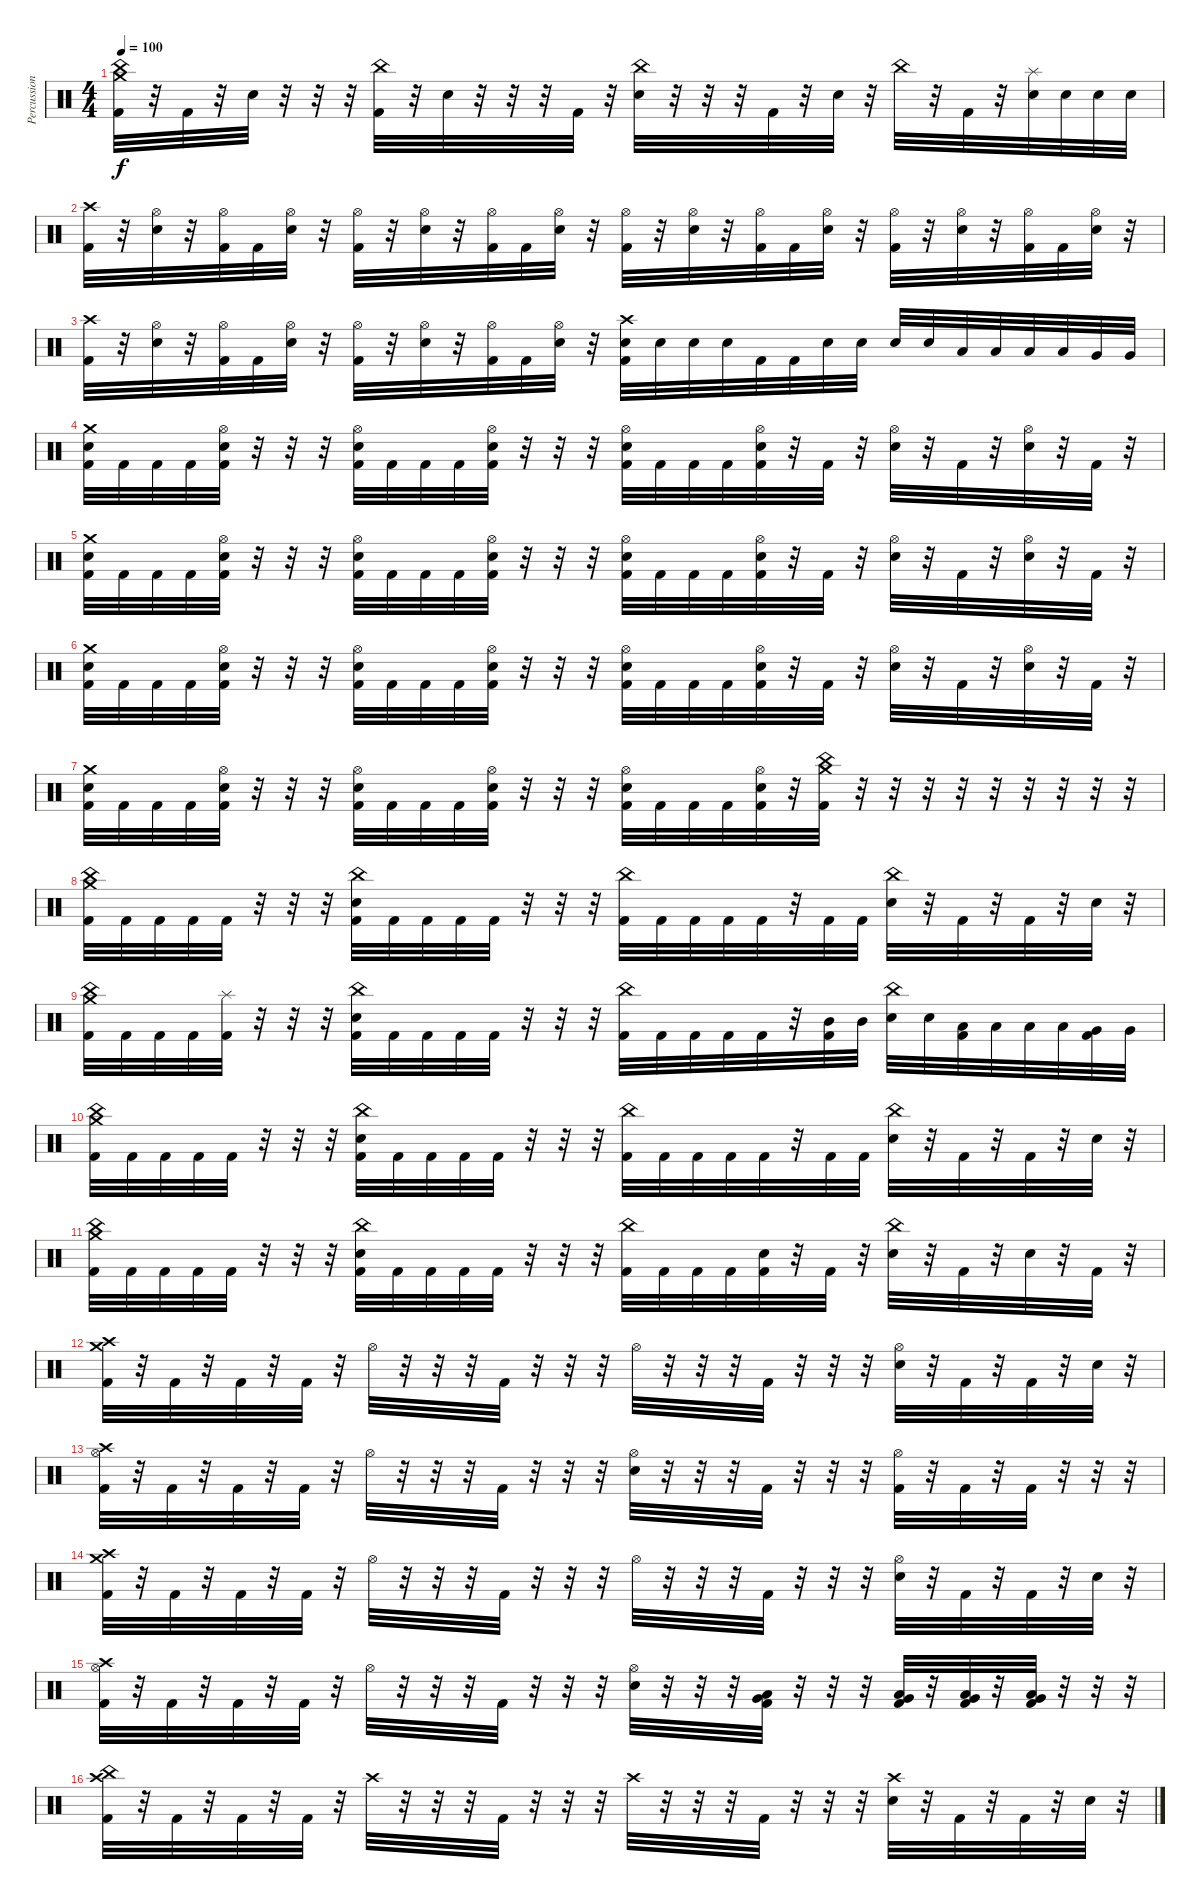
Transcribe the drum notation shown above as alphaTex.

\track ("Percussion" "Percussion") {instrument percussion}
\staff {score}
\articulation defaults
\ts (4 4)
\tempo 100
\clef neutral
\ks c
("Crash medium (hit)" "China (hit)" "Kick (hit) 2").32{dy f} r.32 "Kick (hit) 2".32 r.32 "Electric Snare (hit)".32 r.32 r.32 r.32 ("China (hit)" "Kick (hit) 2").32 r.32 "Electric Snare (hit)".32 r.32 r.32 r.32 "Kick (hit) 2".32 r.32 ("China (hit)" "Electric Snare (hit)").32 r.32 r.32 r.32 "Kick (hit) 2".32 r.32 "Electric Snare (hit)".32 r.32 "China (hit)".32 r.32 "Kick (hit) 2".32 r.32 ("Splash (hit)" "Electric Snare (hit)").32 "Electric Snare (hit)".32 "Electric Snare (hit)".32 "Electric Snare (hit)".32 |
("Crash high (hit)" "Kick (hit) 2").32 r.32 ("Hi-Hat (open)" "Electric Snare (hit)").32 r.32 ("Hi-Hat (open)" "Kick (hit) 2").32 "Kick (hit) 2".32 ("Hi-Hat (open)" "Electric Snare (hit)").32 r.32 ("Hi-Hat (open)" "Kick (hit) 2").32 r.32 ("Hi-Hat (open)" "Electric Snare (hit)").32 r.32 ("Hi-Hat (open)" "Kick (hit) 2").32 "Kick (hit) 2".32 ("Hi-Hat (open)" "Electric Snare (hit)").32 r.32 ("Hi-Hat (open)" "Kick (hit) 2").32 r.32 ("Hi-Hat (open)" "Electric Snare (hit)").32 r.32 ("Hi-Hat (open)" "Kick (hit) 2").32 "Kick (hit) 2".32 ("Hi-Hat (open)" "Electric Snare (hit)").32 r.32 ("Hi-Hat (open)" "Kick (hit) 2").32 r.32 ("Hi-Hat (open)" "Electric Snare (hit)").32 r.32 ("Hi-Hat (open)" "Kick (hit) 2").32 "Kick (hit) 2".32 ("Hi-Hat (open)" "Electric Snare (hit)").32 r.32 |
("Crash high (hit)" "Kick (hit) 2").32 r.32 ("Hi-Hat (open)" "Electric Snare (hit)").32 r.32 ("Hi-Hat (open)" "Kick (hit) 2").32 "Kick (hit) 2".32 ("Hi-Hat (open)" "Electric Snare (hit)").32 r.32 ("Hi-Hat (open)" "Kick (hit) 2").32 r.32 ("Hi-Hat (open)" "Electric Snare (hit)").32 r.32 ("Hi-Hat (open)" "Kick (hit) 2").32 "Kick (hit) 2".32 ("Hi-Hat (open)" "Electric Snare (hit)").32 r.32 ("Crash high (hit)" "Electric Snare (hit)" "Kick (hit) 2").32 "Electric Snare (hit)".32 "Electric Snare (hit)".32 "Electric Snare (hit)".32 "Kick (hit) 2".32 "Kick (hit) 2".32 "Electric Snare (hit)".32 "Electric Snare (hit)".32 "Electric Snare (hit)".32 "Electric Snare (hit)".32 "Low Tom (hit)".32 "Low Tom (hit)".32 "Low Tom (hit)".32 "Low Tom (hit)".32 "Very Low Tom (hit)".32 "Very Low Tom (hit)".32 |
("Crash medium (hit)" "Electric Snare (hit)" "Kick (hit) 2").32 "Kick (hit) 2".32 "Kick (hit) 2".32 "Kick (hit) 2".32 ("Hi-Hat (open)" "Electric Snare (hit)" "Kick (hit) 2").32 r.32 r.32 r.32 ("Hi-Hat (open)" "Electric Snare (hit)" "Kick (hit) 2").32 "Kick (hit) 2".32 "Kick (hit) 2".32 "Kick (hit) 2".32 ("Hi-Hat (open)" "Electric Snare (hit)" "Kick (hit) 2").32 r.32 r.32 r.32 ("Hi-Hat (open)" "Electric Snare (hit)" "Kick (hit) 2").32 "Kick (hit) 2".32 "Kick (hit) 2".32 "Kick (hit) 2".32 ("Hi-Hat (open)" "Electric Snare (hit)" "Kick (hit) 2").32 r.32 "Kick (hit) 2".32 r.32 ("Hi-Hat (open)" "Electric Snare (hit)").32 r.32 "Kick (hit) 2".32 r.32 ("Hi-Hat (open)" "Electric Snare (hit)").32 r.32 "Kick (hit) 2".32 r.32 |
("Crash medium (hit)" "Electric Snare (hit)" "Kick (hit) 2").32 "Kick (hit) 2".32 "Kick (hit) 2".32 "Kick (hit) 2".32 ("Hi-Hat (open)" "Electric Snare (hit)" "Kick (hit) 2").32 r.32 r.32 r.32 ("Hi-Hat (open)" "Electric Snare (hit)" "Kick (hit) 2").32 "Kick (hit) 2".32 "Kick (hit) 2".32 "Kick (hit) 2".32 ("Hi-Hat (open)" "Electric Snare (hit)" "Kick (hit) 2").32 r.32 r.32 r.32 ("Hi-Hat (open)" "Electric Snare (hit)" "Kick (hit) 2").32 "Kick (hit) 2".32 "Kick (hit) 2".32 "Kick (hit) 2".32 ("Hi-Hat (open)" "Electric Snare (hit)" "Kick (hit) 2").32 r.32 "Kick (hit) 2".32 r.32 ("Hi-Hat (open)" "Electric Snare (hit)").32 r.32 "Kick (hit) 2".32 r.32 ("Hi-Hat (open)" "Electric Snare (hit)").32 r.32 "Kick (hit) 2".32 r.32 |
("Crash medium (hit)" "Electric Snare (hit)" "Kick (hit) 2").32 "Kick (hit) 2".32 "Kick (hit) 2".32 "Kick (hit) 2".32 ("Hi-Hat (open)" "Electric Snare (hit)" "Kick (hit) 2").32 r.32 r.32 r.32 ("Hi-Hat (open)" "Electric Snare (hit)" "Kick (hit) 2").32 "Kick (hit) 2".32 "Kick (hit) 2".32 "Kick (hit) 2".32 ("Hi-Hat (open)" "Electric Snare (hit)" "Kick (hit) 2").32 r.32 r.32 r.32 ("Hi-Hat (open)" "Electric Snare (hit)" "Kick (hit) 2").32 "Kick (hit) 2".32 "Kick (hit) 2".32 "Kick (hit) 2".32 ("Hi-Hat (open)" "Electric Snare (hit)" "Kick (hit) 2").32 r.32 "Kick (hit) 2".32 r.32 ("Hi-Hat (open)" "Electric Snare (hit)").32 r.32 "Kick (hit) 2".32 r.32 ("Hi-Hat (open)" "Electric Snare (hit)").32 r.32 "Kick (hit) 2".32 r.32 |
("Crash medium (hit)" "Electric Snare (hit)" "Kick (hit) 2").32 "Kick (hit) 2".32 "Kick (hit) 2".32 "Kick (hit) 2".32 ("Hi-Hat (open)" "Electric Snare (hit)" "Kick (hit) 2").32 r.32 r.32 r.32 ("Hi-Hat (open)" "Electric Snare (hit)" "Kick (hit) 2").32 "Kick (hit) 2".32 "Kick (hit) 2".32 "Kick (hit) 2".32 ("Hi-Hat (open)" "Electric Snare (hit)" "Kick (hit) 2").32 r.32 r.32 r.32 ("Hi-Hat (open)" "Electric Snare (hit)" "Kick (hit) 2").32 "Kick (hit) 2".32 "Kick (hit) 2".32 "Kick (hit) 2".32 ("Hi-Hat (open)" "Electric Snare (hit)" "Kick (hit) 2").32 r.32 ("Crash medium (hit)" "China (hit)" "Kick (hit) 2").32 r.32 r.32 r.32 r.32 r.32 r.32 r.32 r.32 r.32 |
("China (hit)" "Crash medium (hit)" "Kick (hit) 2").32 "Kick (hit) 2".32 "Kick (hit) 2".32 "Kick (hit) 2".32 "Kick (hit) 2".32 r.32 r.32 r.32 ("China (hit)" "Electric Snare (hit)" "Kick (hit) 2").32 "Kick (hit) 2".32 "Kick (hit) 2".32 "Kick (hit) 2".32 "Kick (hit) 2".32 r.32 r.32 r.32 ("China (hit)" "Kick (hit) 2").32 "Kick (hit) 2".32 "Kick (hit) 2".32 "Kick (hit) 2".32 "Kick (hit) 2".32 r.32 "Kick (hit) 2".32 "Kick (hit) 2".32 ("China (hit)" "Electric Snare (hit)").32 r.32 "Kick (hit) 2".32 r.32 "Kick (hit) 2".32 r.32 "Electric Snare (hit)".32 r.32 |
("China (hit)" "Crash medium (hit)" "Kick (hit) 2").32 "Kick (hit) 2".32 "Kick (hit) 2".32 "Kick (hit) 2".32 ("Splash (hit)" "Kick (hit) 2").32 r.32 r.32 r.32 ("China (hit)" "Electric Snare (hit)" "Kick (hit) 2").32 "Kick (hit) 2".32 "Kick (hit) 2".32 "Kick (hit) 2".32 "Kick (hit) 2".32 r.32 r.32 r.32 ("China (hit)" "Kick (hit) 2").32 "Kick (hit) 2".32 "Kick (hit) 2".32 "Kick (hit) 2".32 "Kick (hit) 2".32 r.32 ("Mid Tom (hit)" "Kick (hit) 2").32 "Mid Tom (hit)".32 ("China (hit)" "Electric Snare (hit)").32 "Electric Snare (hit)".32 ("Low Tom (hit)" "Kick (hit) 2").32 "Low Tom (hit)".32 "Low Tom (hit)".32 "Low Tom (hit)".32 ("Very Low Tom (hit)" "Kick (hit) 2").32 "Very Low Tom (hit)".32 |
("China (hit)" "Crash medium (hit)" "Kick (hit) 2").32 "Kick (hit) 2".32 "Kick (hit) 2".32 "Kick (hit) 2".32 "Kick (hit) 2".32 r.32 r.32 r.32 ("China (hit)" "Electric Snare (hit)" "Kick (hit) 2").32 "Kick (hit) 2".32 "Kick (hit) 2".32 "Kick (hit) 2".32 "Kick (hit) 2".32 r.32 r.32 r.32 ("China (hit)" "Kick (hit) 2").32 "Kick (hit) 2".32 "Kick (hit) 2".32 "Kick (hit) 2".32 "Kick (hit) 2".32 r.32 "Kick (hit) 2".32 "Kick (hit) 2".32 ("China (hit)" "Electric Snare (hit)").32 r.32 "Kick (hit) 2".32 r.32 "Kick (hit) 2".32 r.32 "Electric Snare (hit)".32 r.32 |
("China (hit)" "Crash medium (hit)" "Kick (hit) 2").32 "Kick (hit) 2".32 "Kick (hit) 2".32 "Kick (hit) 2".32 "Kick (hit) 2".32 r.32 r.32 r.32 ("China (hit)" "Electric Snare (hit)" "Kick (hit) 2").32 "Kick (hit) 2".32 "Kick (hit) 2".32 "Kick (hit) 2".32 "Kick (hit) 2".32 r.32 r.32 r.32 ("China (hit)" "Kick (hit) 2").32 "Kick (hit) 2".32 "Kick (hit) 2".32 "Kick (hit) 2".32 ("Electric Snare (hit)" "Kick (hit) 2").32 r.32 "Kick (hit) 2".32 r.32 ("China (hit)" "Electric Snare (hit)").32 r.32 "Kick (hit) 2".32 r.32 "Electric Snare (hit)".32 r.32 "Kick (hit) 2".32 r.32 |
("Crash high (hit)" "Crash medium (hit)" "Kick (hit) 2").32 r.32 "Kick (hit) 2".32 r.32 "Kick (hit) 2".32 r.32 "Kick (hit) 2".32 r.32 "Hi-Hat (open)".32 r.32 r.32 r.32 "Kick (hit) 2".32 r.32 r.32 r.32 "Hi-Hat (open)".32 r.32 r.32 r.32 "Kick (hit) 2".32 r.32 r.32 r.32 ("Hi-Hat (open)" "Electric Snare (hit)").32 r.32 "Kick (hit) 2".32 r.32 "Kick (hit) 2".32 r.32 "Electric Snare (hit)".32 r.32 |
("Crash high (hit)" "Hi-Hat (open)" "Kick (hit) 2").32 r.32 "Kick (hit) 2".32 r.32 "Kick (hit) 2".32 r.32 "Kick (hit) 2".32 r.32 "Hi-Hat (open)".32 r.32 r.32 r.32 "Kick (hit) 2".32 r.32 r.32 r.32 ("Hi-Hat (open)" "Electric Snare (hit)").32 r.32 r.32 r.32 "Kick (hit) 2".32 r.32 r.32 r.32 ("Hi-Hat (open)" "Kick (hit) 2").32 r.32 "Kick (hit) 2".32 r.32 "Kick (hit) 2".32 r.32 r.32 r.32 |
("Crash high (hit)" "Crash medium (hit)" "Kick (hit) 2").32 r.32 "Kick (hit) 2".32 r.32 "Kick (hit) 2".32 r.32 "Kick (hit) 2".32 r.32 "Hi-Hat (open)".32 r.32 r.32 r.32 "Kick (hit) 2".32 r.32 r.32 r.32 "Hi-Hat (open)".32 r.32 r.32 r.32 "Kick (hit) 2".32 r.32 r.32 r.32 ("Hi-Hat (open)" "Electric Snare (hit)").32 r.32 "Kick (hit) 2".32 r.32 "Kick (hit) 2".32 r.32 "Electric Snare (hit)".32 r.32 |
("Crash high (hit)" "Hi-Hat (open)" "Kick (hit) 2").32 r.32 "Kick (hit) 2".32 r.32 "Kick (hit) 2".32 r.32 "Kick (hit) 2".32 r.32 "Hi-Hat (open)".32 r.32 r.32 r.32 "Kick (hit) 2".32 r.32 r.32 r.32 ("Hi-Hat (open)" "Electric Snare (hit)").32 r.32 r.32 r.32 ("Low Floor Tom (hit)" "Very Low Tom (hit)" "Kick (hit) 2").32 r.32 r.32 r.32 ("Low Floor Tom (hit)" "Very Low Tom (hit)" "Kick (hit) 2").32 r.32 ("Low Floor Tom (hit)" "Very Low Tom (hit)" "Kick (hit) 2").32 r.32 ("Low Floor Tom (hit)" "Very Low Tom (hit)" "Kick (hit) 2").32 r.32 r.32 r.32 |
("China (hit)" "Crash high (hit)" "Kick (hit) 2").32 r.32 "Kick (hit) 2".32 r.32 "Kick (hit) 2".32 r.32 "Kick (hit) 2".32 r.32 "Crash high (hit)".32 r.32 r.32 r.32 "Kick (hit) 2".32 r.32 r.32 r.32 "Crash high (hit)".32 r.32 r.32 r.32 "Kick (hit) 2".32 r.32 r.32 r.32 ("Crash high (hit)" "Electric Snare (hit)").32 r.32 "Kick (hit) 2".32 r.32 "Kick (hit) 2".32 r.32 "Electric Snare (hit)".32 r.32
